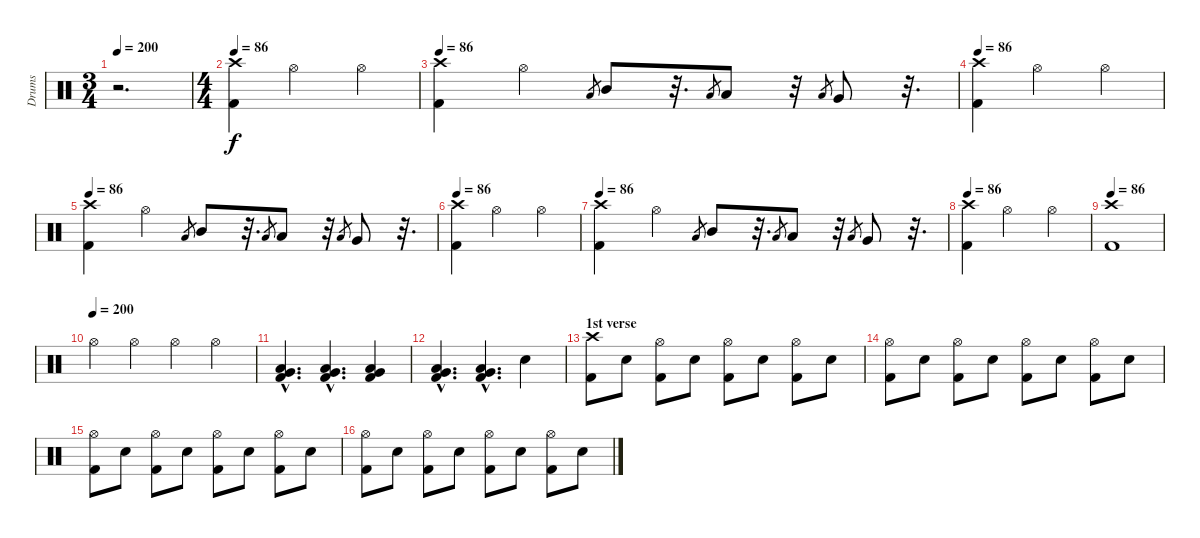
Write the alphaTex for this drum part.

\track ("Drums" "Drums") {instrument percussion}
\staff {score}
\articulation defaults
\ts (3 4)
\tempo 200
\clef neutral
\ks c
r.2{d dy f} |
\ts (4 4)
\tempo 86
("Crash high (hit)" "Kick (hit) 2").4 "Hi-Hat (open)".2 "Hi-Hat (open)".4 |
\tempo 86
("Crash high (hit)" "Kick (hit) 2").4 "Hi-Hat (open)".4 "Low Floor Tom (hit)".8{gr} "Mid Tom (hit)".8 r.32{d} "Low Floor Tom (hit)".8{gr} "Low Tom (hit)".8 r.32 "Low Floor Tom (hit)".8{gr} "Very Low Tom (hit)".8 r.32{d} |
\tempo 86
("Crash high (hit)" "Kick (hit) 2").4 "Hi-Hat (open)".2 "Hi-Hat (open)".4 |
\tempo 86
("Crash high (hit)" "Kick (hit) 2").4 "Hi-Hat (open)".4 "Low Floor Tom (hit)".8{gr} "Mid Tom (hit)".8 r.32{d} "Low Floor Tom (hit)".8{gr} "Low Tom (hit)".8 r.32 "Low Floor Tom (hit)".8{gr} "Very Low Tom (hit)".8 r.32{d} |
\tempo 86
("Crash high (hit)" "Kick (hit) 2").4 "Hi-Hat (open)".2 "Hi-Hat (open)".4 |
\tempo 86
("Crash high (hit)" "Kick (hit) 2").4 "Hi-Hat (open)".4 "Low Floor Tom (hit)".8{gr} "Mid Tom (hit)".8 r.32{d} "Low Floor Tom (hit)".8{gr} "Low Tom (hit)".8 r.32 "Low Floor Tom (hit)".8{gr} "Very Low Tom (hit)".8 r.32{d} |
\tempo 86
("Crash high (hit)" "Kick (hit) 2").4 "Hi-Hat (open)".2 "Hi-Hat (open)".4 |
\tempo 86
("Crash high (hit)" "Kick (hit) 2").1 |
\tempo (200)
"Hi-Hat (open)".4 "Hi-Hat (open)".4 "Hi-Hat (open)".4 "Hi-Hat (open)".4 |
("Very Low Tom (hit)"{hac} "Low Floor Tom (hit)"{hac} "Kick (hit) 2"{hac}).4{d} ("Very Low Tom (hit)"{hac} "Low Floor Tom (hit)"{hac} "Kick (hit) 2"{hac}).4{d} ("Very Low Tom (hit)" "Low Floor Tom (hit)" "Kick (hit) 2").4 |
("Very Low Tom (hit)"{hac} "Low Floor Tom (hit)"{hac} "Kick (hit) 2"{hac}).4{d} ("Very Low Tom (hit)"{hac} "Low Floor Tom (hit)"{hac} "Kick (hit) 2"{hac}).4{d} "Electric Snare (hit)".4 |
\section ("" "1st verse")
("Crash high (hit)" "Kick (hit) 2").8 "Electric Snare (hit)".8 ("Hi-Hat (open)" "Kick (hit) 2").8 "Electric Snare (hit)".8 ("Hi-Hat (open)" "Kick (hit) 2").8 "Electric Snare (hit)".8 ("Hi-Hat (open)" "Kick (hit) 2").8 "Electric Snare (hit)".8 |
("Hi-Hat (open)" "Kick (hit) 2").8 "Electric Snare (hit)".8 ("Hi-Hat (open)" "Kick (hit) 2").8 "Electric Snare (hit)".8 ("Hi-Hat (open)" "Kick (hit) 2").8 "Electric Snare (hit)".8 ("Hi-Hat (open)" "Kick (hit) 2").8 "Electric Snare (hit)".8 |
("Hi-Hat (open)" "Kick (hit) 2").8 "Electric Snare (hit)".8 ("Hi-Hat (open)" "Kick (hit) 2").8 "Electric Snare (hit)".8 ("Hi-Hat (open)" "Kick (hit) 2").8 "Electric Snare (hit)".8 ("Hi-Hat (open)" "Kick (hit) 2").8 "Electric Snare (hit)".8 |
("Hi-Hat (open)" "Kick (hit) 2").8 "Electric Snare (hit)".8 ("Hi-Hat (open)" "Kick (hit) 2").8 "Electric Snare (hit)".8 ("Hi-Hat (open)" "Kick (hit) 2").8 "Electric Snare (hit)".8 ("Hi-Hat (open)" "Kick (hit) 2").8 "Electric Snare (hit)".8
